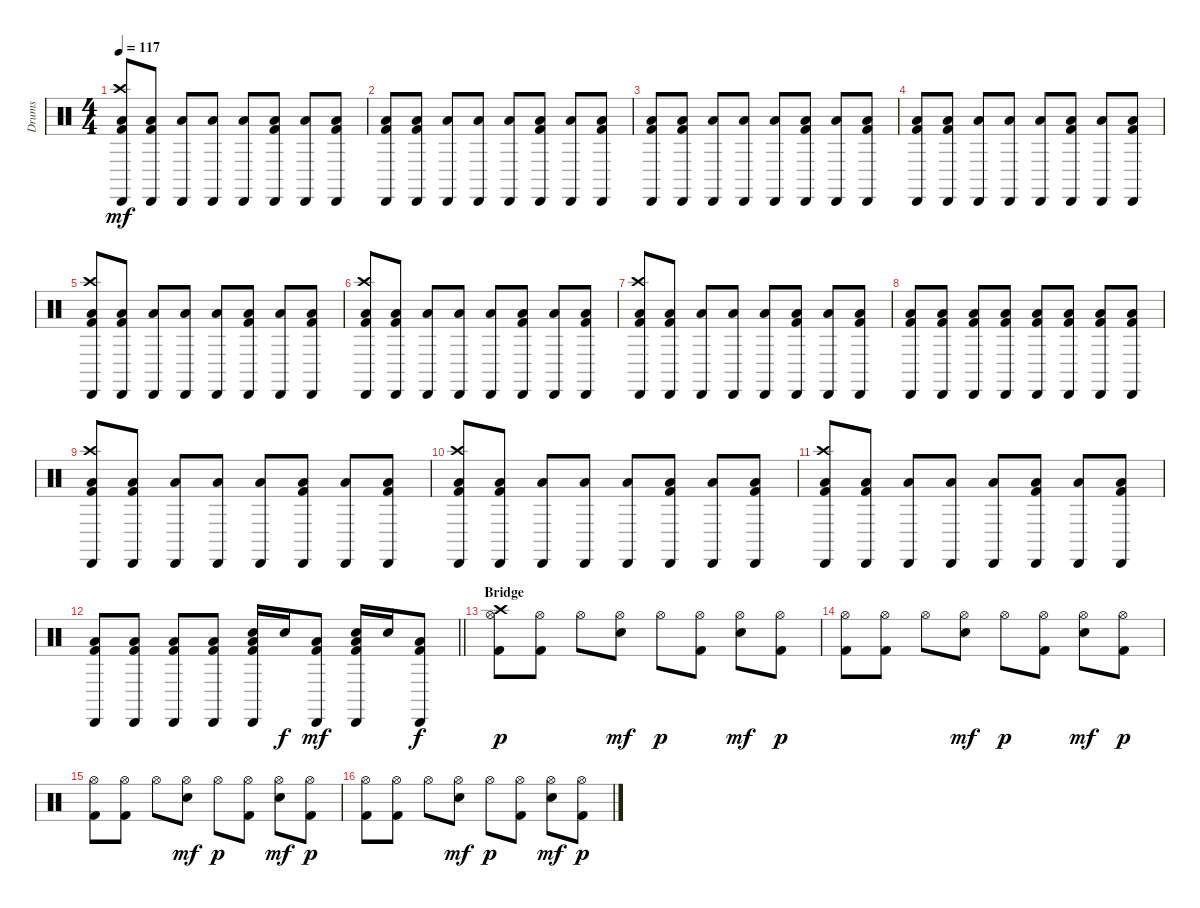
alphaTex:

\track ("Drums" "Drums") {instrument percussion}
\staff {score}
\articulation defaults
\ts (4 4)
\tempo 117
\clef neutral
\ks c
("Crash high (hit)" "Cabasa (hit)" "Low Floor Tom (hit)" "Kick (hit) 2").8{dy mf} ("Cabasa (hit)" "Low Floor Tom (hit)" "Kick (hit) 2").8 ("Cabasa (hit)" "Low Floor Tom (hit)").8 ("Cabasa (hit)" "Low Floor Tom (hit)").8 ("Cabasa (hit)" "Low Floor Tom (hit)").8 ("Cabasa (hit)" "Low Floor Tom (hit)" "Kick (hit) 2").8 ("Cabasa (hit)" "Low Floor Tom (hit)").8 ("Cabasa (hit)" "Low Floor Tom (hit)" "Kick (hit) 2").8 |
("Cabasa (hit)" "Low Floor Tom (hit)" "Kick (hit) 2").8 ("Cabasa (hit)" "Low Floor Tom (hit)" "Kick (hit) 2").8 ("Cabasa (hit)" "Low Floor Tom (hit)").8 ("Cabasa (hit)" "Low Floor Tom (hit)").8 ("Cabasa (hit)" "Low Floor Tom (hit)").8 ("Cabasa (hit)" "Low Floor Tom (hit)" "Kick (hit) 2").8 ("Cabasa (hit)" "Low Floor Tom (hit)").8 ("Cabasa (hit)" "Low Floor Tom (hit)" "Kick (hit) 2").8 |
("Cabasa (hit)" "Low Floor Tom (hit)" "Kick (hit) 2").8 ("Cabasa (hit)" "Low Floor Tom (hit)" "Kick (hit) 2").8 ("Cabasa (hit)" "Low Floor Tom (hit)").8 ("Cabasa (hit)" "Low Floor Tom (hit)").8 ("Cabasa (hit)" "Low Floor Tom (hit)").8 ("Cabasa (hit)" "Low Floor Tom (hit)" "Kick (hit) 2").8 ("Cabasa (hit)" "Low Floor Tom (hit)").8 ("Cabasa (hit)" "Low Floor Tom (hit)" "Kick (hit) 2").8 |
("Cabasa (hit)" "Low Floor Tom (hit)" "Kick (hit) 2").8 ("Cabasa (hit)" "Low Floor Tom (hit)" "Kick (hit) 2").8 ("Cabasa (hit)" "Low Floor Tom (hit)").8 ("Cabasa (hit)" "Low Floor Tom (hit)").8 ("Cabasa (hit)" "Low Floor Tom (hit)").8 ("Cabasa (hit)" "Low Floor Tom (hit)" "Kick (hit) 2").8 ("Cabasa (hit)" "Low Floor Tom (hit)").8 ("Cabasa (hit)" "Low Floor Tom (hit)" "Kick (hit) 2").8 |
("Crash high (hit)" "Cabasa (hit)" "Low Floor Tom (hit)" "Kick (hit) 2").8 ("Cabasa (hit)" "Low Floor Tom (hit)" "Kick (hit) 2").8 ("Cabasa (hit)" "Low Floor Tom (hit)").8 ("Cabasa (hit)" "Low Floor Tom (hit)").8 ("Cabasa (hit)" "Low Floor Tom (hit)").8 ("Cabasa (hit)" "Low Floor Tom (hit)" "Kick (hit) 2").8 ("Cabasa (hit)" "Low Floor Tom (hit)").8 ("Cabasa (hit)" "Low Floor Tom (hit)" "Kick (hit) 2").8 |
("Crash high (hit)" "Cabasa (hit)" "Low Floor Tom (hit)" "Kick (hit) 2").8 ("Cabasa (hit)" "Low Floor Tom (hit)" "Kick (hit) 2").8 ("Cabasa (hit)" "Low Floor Tom (hit)").8 ("Cabasa (hit)" "Low Floor Tom (hit)").8 ("Cabasa (hit)" "Low Floor Tom (hit)").8 ("Cabasa (hit)" "Low Floor Tom (hit)" "Kick (hit) 2").8 ("Cabasa (hit)" "Low Floor Tom (hit)").8 ("Cabasa (hit)" "Low Floor Tom (hit)" "Kick (hit) 2").8 |
("Crash high (hit)" "Cabasa (hit)" "Low Floor Tom (hit)" "Kick (hit) 2").8 ("Cabasa (hit)" "Low Floor Tom (hit)" "Kick (hit) 2").8 ("Cabasa (hit)" "Low Floor Tom (hit)").8 ("Cabasa (hit)" "Low Floor Tom (hit)").8 ("Cabasa (hit)" "Low Floor Tom (hit)").8 ("Cabasa (hit)" "Low Floor Tom (hit)" "Kick (hit) 2").8 ("Cabasa (hit)" "Low Floor Tom (hit)").8 ("Cabasa (hit)" "Low Floor Tom (hit)" "Kick (hit) 2").8 |
("Cabasa (hit)" "Low Floor Tom (hit)" "Kick (hit) 2").8 ("Cabasa (hit)" "Low Floor Tom (hit)" "Kick (hit) 2").8 ("Cabasa (hit)" "Low Floor Tom (hit)" "Kick (hit) 2").8 ("Cabasa (hit)" "Low Floor Tom (hit)" "Kick (hit) 2").8 ("Cabasa (hit)" "Low Floor Tom (hit)" "Kick (hit) 2").8 ("Cabasa (hit)" "Low Floor Tom (hit)" "Kick (hit) 2").8 ("Cabasa (hit)" "Low Floor Tom (hit)" "Kick (hit) 2").8 ("Cabasa (hit)" "Low Floor Tom (hit)" "Kick (hit) 2").8 |
("Crash high (hit)" "Cabasa (hit)" "Low Floor Tom (hit)" "Kick (hit) 2").8 ("Cabasa (hit)" "Low Floor Tom (hit)" "Kick (hit) 2").8 ("Cabasa (hit)" "Low Floor Tom (hit)").8 ("Cabasa (hit)" "Low Floor Tom (hit)").8 ("Cabasa (hit)" "Low Floor Tom (hit)").8 ("Cabasa (hit)" "Low Floor Tom (hit)" "Kick (hit) 2").8 ("Cabasa (hit)" "Low Floor Tom (hit)").8 ("Cabasa (hit)" "Low Floor Tom (hit)" "Kick (hit) 2").8 |
("Crash high (hit)" "Cabasa (hit)" "Low Floor Tom (hit)" "Kick (hit) 2").8 ("Cabasa (hit)" "Low Floor Tom (hit)" "Kick (hit) 2").8 ("Cabasa (hit)" "Low Floor Tom (hit)").8 ("Cabasa (hit)" "Low Floor Tom (hit)").8 ("Cabasa (hit)" "Low Floor Tom (hit)").8 ("Cabasa (hit)" "Low Floor Tom (hit)" "Kick (hit) 2").8 ("Cabasa (hit)" "Low Floor Tom (hit)").8 ("Cabasa (hit)" "Low Floor Tom (hit)" "Kick (hit) 2").8 |
("Crash high (hit)" "Cabasa (hit)" "Low Floor Tom (hit)" "Kick (hit) 2").8 ("Cabasa (hit)" "Low Floor Tom (hit)" "Kick (hit) 2").8 ("Cabasa (hit)" "Low Floor Tom (hit)").8 ("Cabasa (hit)" "Low Floor Tom (hit)").8 ("Cabasa (hit)" "Low Floor Tom (hit)").8 ("Cabasa (hit)" "Low Floor Tom (hit)" "Kick (hit) 2").8 ("Cabasa (hit)" "Low Floor Tom (hit)").8 ("Cabasa (hit)" "Low Floor Tom (hit)" "Kick (hit) 2").8 |
\barLineRight lightlight
("Cabasa (hit)" "Low Floor Tom (hit)" "Kick (hit) 2").8 ("Cabasa (hit)" "Low Floor Tom (hit)" "Kick (hit) 2").8 ("Cabasa (hit)" "Low Floor Tom (hit)" "Kick (hit) 2").8 ("Cabasa (hit)" "Low Floor Tom (hit)" "Kick (hit) 2").8 ("Snare (hit) 2" "Cabasa (hit)" "Low Floor Tom (hit)" "Kick (hit) 2").16 "Snare (hit) 2".16{dy f} ("Cabasa (hit)" "Low Floor Tom (hit)" "Kick (hit) 2").8{dy mf} ("Snare (hit) 2" "Cabasa (hit)" "Low Floor Tom (hit)" "Kick (hit) 2").16 "Snare (hit) 2".16 ("Cabasa (hit)" "Low Floor Tom (hit)" "Kick (hit) 2").8{dy f} |
\section ("" "Bridge")
("Crash high (hit)" "Hi-Hat (open)" "Kick (hit) 2").8{dy p} ("Hi-Hat (open)" "Kick (hit) 2").8 "Hi-Hat (open)".8 ("Hi-Hat (open)" "Snare (hit) 2").8{dy mf} "Hi-Hat (open)".8{dy p} ("Hi-Hat (open)" "Kick (hit) 2").8 ("Hi-Hat (open)" "Snare (hit) 2").8{dy mf} ("Hi-Hat (open)" "Kick (hit) 2").8{dy p} |
("Hi-Hat (open)" "Kick (hit) 2").8 ("Hi-Hat (open)" "Kick (hit) 2").8 "Hi-Hat (open)".8 ("Hi-Hat (open)" "Snare (hit) 2").8{dy mf} "Hi-Hat (open)".8{dy p} ("Hi-Hat (open)" "Kick (hit) 2").8 ("Hi-Hat (open)" "Snare (hit) 2").8{dy mf} ("Hi-Hat (open)" "Kick (hit) 2").8{dy p} |
("Hi-Hat (open)" "Kick (hit) 2").8 ("Hi-Hat (open)" "Kick (hit) 2").8 "Hi-Hat (open)".8 ("Hi-Hat (open)" "Snare (hit) 2").8{dy mf} "Hi-Hat (open)".8{dy p} ("Hi-Hat (open)" "Kick (hit) 2").8 ("Hi-Hat (open)" "Snare (hit) 2").8{dy mf} ("Hi-Hat (open)" "Kick (hit) 2").8{dy p} |
("Hi-Hat (open)" "Kick (hit) 2").8 ("Hi-Hat (open)" "Kick (hit) 2").8 "Hi-Hat (open)".8 ("Hi-Hat (open)" "Snare (hit) 2").8{dy mf} "Hi-Hat (open)".8{dy p} ("Hi-Hat (open)" "Kick (hit) 2").8 ("Hi-Hat (open)" "Snare (hit) 2").8{dy mf} ("Hi-Hat (open)" "Kick (hit) 2").8{dy p}
